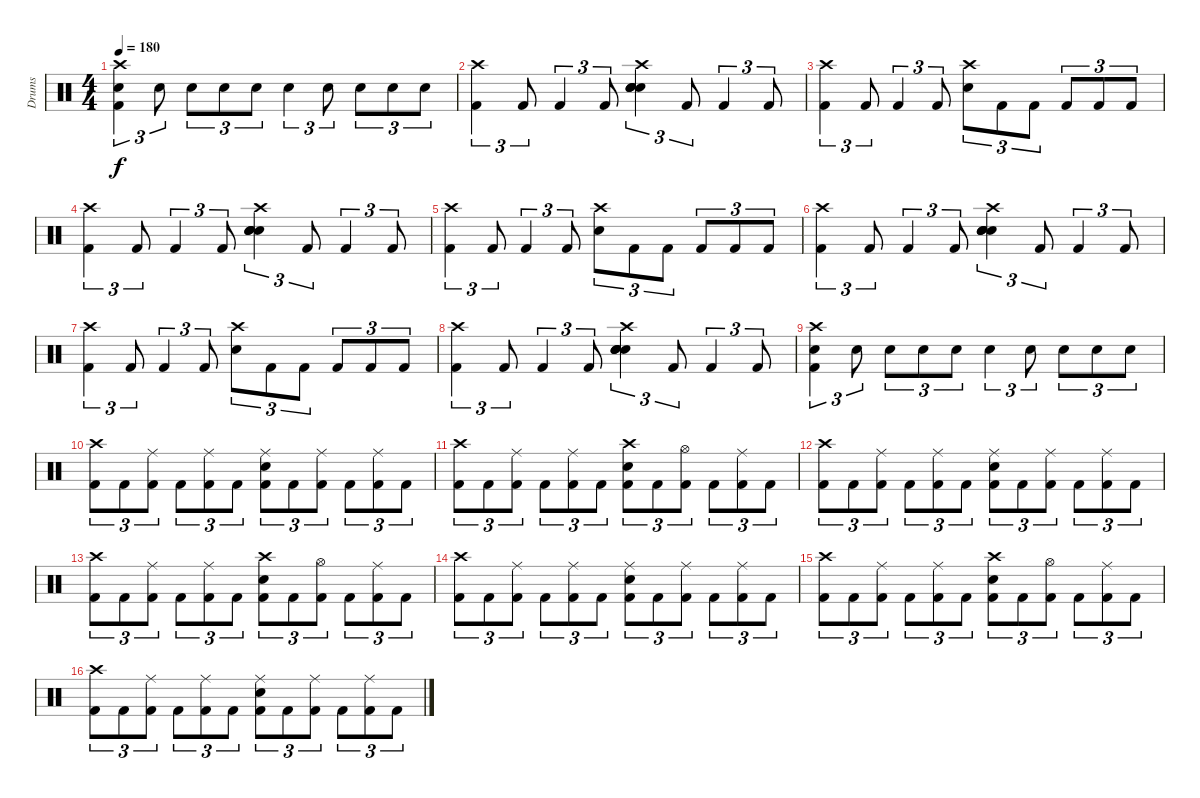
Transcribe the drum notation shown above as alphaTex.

\track ("Drums" "Drums") {instrument percussion}
\staff {score}
\articulation defaults
\ts (4 4)
\tempo 180
\clef neutral
\ks c
("Crash high (hit)" "Snare (hit) 2" "Kick (hit) 2").4{tu (3 2) dy f} "Snare (hit) 2".8{tu (3 2)} "Snare (hit) 2".8{tu (3 2)} "Snare (hit) 2".8{tu (3 2)} "Snare (hit) 2".8{tu (3 2)} "Snare (hit) 2".4{tu (3 2)} "Snare (hit) 2".8{tu (3 2)} "Snare (hit) 2".8{tu (3 2)} "Snare (hit) 2".8{tu (3 2)} "Snare (hit) 2".8{tu (3 2)} |
("Crash high (hit)" "Kick (hit) 2").4{tu (3 2)} "Kick (hit) 2".8{tu (3 2)} "Kick (hit) 2".4{tu (3 2)} "Kick (hit) 2".8{tu (3 2)} ("Crash high (hit)" "Electric Snare (hit)" "Snare (hit) 2" "Electric Snare (hit)" "Snare (hit) 2").4{tu (3 2)} "Kick (hit) 2".8{tu (3 2)} "Kick (hit) 2".4{tu (3 2)} "Kick (hit) 2".8{tu (3 2)} |
("Crash high (hit)" "Kick (hit) 2").4{tu (3 2)} "Kick (hit) 2".8{tu (3 2)} "Kick (hit) 2".4{tu (3 2)} "Kick (hit) 2".8{tu (3 2)} ("Crash high (hit)" "Snare (hit) 2").8{tu (3 2)} "Kick (hit) 2".8{tu (3 2)} "Kick (hit) 2".8{tu (3 2)} "Kick (hit) 2".8{tu (3 2)} "Kick (hit) 2".8{tu (3 2)} "Kick (hit) 2".8{tu (3 2)} |
("Crash high (hit)" "Kick (hit) 2").4{tu (3 2)} "Kick (hit) 2".8{tu (3 2)} "Kick (hit) 2".4{tu (3 2)} "Kick (hit) 2".8{tu (3 2)} ("Crash high (hit)" "Electric Snare (hit)" "Snare (hit) 2" "Electric Snare (hit)" "Snare (hit) 2").4{tu (3 2)} "Kick (hit) 2".8{tu (3 2)} "Kick (hit) 2".4{tu (3 2)} "Kick (hit) 2".8{tu (3 2)} |
("Crash high (hit)" "Kick (hit) 2").4{tu (3 2)} "Kick (hit) 2".8{tu (3 2)} "Kick (hit) 2".4{tu (3 2)} "Kick (hit) 2".8{tu (3 2)} ("Crash high (hit)" "Snare (hit) 2").8{tu (3 2)} "Kick (hit) 2".8{tu (3 2)} "Kick (hit) 2".8{tu (3 2)} "Kick (hit) 2".8{tu (3 2)} "Kick (hit) 2".8{tu (3 2)} "Kick (hit) 2".8{tu (3 2)} |
("Crash high (hit)" "Kick (hit) 2").4{tu (3 2)} "Kick (hit) 2".8{tu (3 2)} "Kick (hit) 2".4{tu (3 2)} "Kick (hit) 2".8{tu (3 2)} ("Crash high (hit)" "Electric Snare (hit)" "Snare (hit) 2" "Electric Snare (hit)" "Snare (hit) 2").4{tu (3 2)} "Kick (hit) 2".8{tu (3 2)} "Kick (hit) 2".4{tu (3 2)} "Kick (hit) 2".8{tu (3 2)} |
("Crash high (hit)" "Kick (hit) 2").4{tu (3 2)} "Kick (hit) 2".8{tu (3 2)} "Kick (hit) 2".4{tu (3 2)} "Kick (hit) 2".8{tu (3 2)} ("Crash high (hit)" "Snare (hit) 2").8{tu (3 2)} "Kick (hit) 2".8{tu (3 2)} "Kick (hit) 2".8{tu (3 2)} "Kick (hit) 2".8{tu (3 2)} "Kick (hit) 2".8{tu (3 2)} "Kick (hit) 2".8{tu (3 2)} |
("Crash high (hit)" "Kick (hit) 2").4{tu (3 2)} "Kick (hit) 2".8{tu (3 2)} "Kick (hit) 2".4{tu (3 2)} "Kick (hit) 2".8{tu (3 2)} ("Crash high (hit)" "Electric Snare (hit)" "Snare (hit) 2" "Electric Snare (hit)" "Snare (hit) 2").4{tu (3 2)} "Kick (hit) 2".8{tu (3 2)} "Kick (hit) 2".4{tu (3 2)} "Kick (hit) 2".8{tu (3 2)} |
("Crash high (hit)" "Snare (hit) 2" "Kick (hit) 2").4{tu (3 2)} "Snare (hit) 2".8{tu (3 2)} "Snare (hit) 2".8{tu (3 2)} "Snare (hit) 2".8{tu (3 2)} "Snare (hit) 2".8{tu (3 2)} "Snare (hit) 2".4{tu (3 2)} "Snare (hit) 2".8{tu (3 2)} "Snare (hit) 2".8{tu (3 2)} "Snare (hit) 2".8{tu (3 2)} "Snare (hit) 2".8{tu (3 2)} |
("Crash high (hit)" "Kick (hit) 2").8{tu (3 2)} "Kick (hit) 2".8{tu (3 2)} ("Ride (middle)" "Kick (hit) 2").8{tu (3 2)} "Kick (hit) 2".8{tu (3 2)} ("Ride (middle)" "Kick (hit) 2").8{tu (3 2)} "Kick (hit) 2".8{tu (3 2)} ("Ride (middle)" "Snare (hit) 2" "Kick (hit) 2").8{tu (3 2)} "Kick (hit) 2".8{tu (3 2)} ("Ride (middle)" "Kick (hit) 2").8{tu (3 2)} "Kick (hit) 2".8{tu (3 2)} ("Ride (middle)" "Kick (hit) 2").8{tu (3 2)} "Kick (hit) 2".8{tu (3 2)} |
("Crash high (hit)" "Kick (hit) 2").8{tu (3 2)} "Kick (hit) 2".8{tu (3 2)} ("Ride (middle)" "Kick (hit) 2").8{tu (3 2)} "Kick (hit) 2".8{tu (3 2)} ("Ride (middle)" "Kick (hit) 2").8{tu (3 2)} "Kick (hit) 2".8{tu (3 2)} ("Crash high (hit)" "Snare (hit) 2" "Kick (hit) 2").8{tu (3 2)} "Kick (hit) 2".8{tu (3 2)} ("Hi-Hat (open)" "Kick (hit) 2").8{tu (3 2)} "Kick (hit) 2".8{tu (3 2)} ("Ride (middle)" "Kick (hit) 2").8{tu (3 2)} "Kick (hit) 2".8{tu (3 2)} |
("Crash high (hit)" "Kick (hit) 2").8{tu (3 2)} "Kick (hit) 2".8{tu (3 2)} ("Ride (middle)" "Kick (hit) 2").8{tu (3 2)} "Kick (hit) 2".8{tu (3 2)} ("Ride (middle)" "Kick (hit) 2").8{tu (3 2)} "Kick (hit) 2".8{tu (3 2)} ("Ride (middle)" "Snare (hit) 2" "Kick (hit) 2").8{tu (3 2)} "Kick (hit) 2".8{tu (3 2)} ("Ride (middle)" "Kick (hit) 2").8{tu (3 2)} "Kick (hit) 2".8{tu (3 2)} ("Ride (middle)" "Kick (hit) 2").8{tu (3 2)} "Kick (hit) 2".8{tu (3 2)} |
("Crash high (hit)" "Kick (hit) 2").8{tu (3 2)} "Kick (hit) 2".8{tu (3 2)} ("Ride (middle)" "Kick (hit) 2").8{tu (3 2)} "Kick (hit) 2".8{tu (3 2)} ("Ride (middle)" "Kick (hit) 2").8{tu (3 2)} "Kick (hit) 2".8{tu (3 2)} ("Crash high (hit)" "Snare (hit) 2" "Kick (hit) 2").8{tu (3 2)} "Kick (hit) 2".8{tu (3 2)} ("Hi-Hat (open)" "Kick (hit) 2").8{tu (3 2)} "Kick (hit) 2".8{tu (3 2)} ("Ride (middle)" "Kick (hit) 2").8{tu (3 2)} "Kick (hit) 2".8{tu (3 2)} |
("Crash high (hit)" "Kick (hit) 2").8{tu (3 2)} "Kick (hit) 2".8{tu (3 2)} ("Ride (middle)" "Kick (hit) 2").8{tu (3 2)} "Kick (hit) 2".8{tu (3 2)} ("Ride (middle)" "Kick (hit) 2").8{tu (3 2)} "Kick (hit) 2".8{tu (3 2)} ("Ride (middle)" "Snare (hit) 2" "Kick (hit) 2").8{tu (3 2)} "Kick (hit) 2".8{tu (3 2)} ("Ride (middle)" "Kick (hit) 2").8{tu (3 2)} "Kick (hit) 2".8{tu (3 2)} ("Ride (middle)" "Kick (hit) 2").8{tu (3 2)} "Kick (hit) 2".8{tu (3 2)} |
("Crash high (hit)" "Kick (hit) 2").8{tu (3 2)} "Kick (hit) 2".8{tu (3 2)} ("Ride (middle)" "Kick (hit) 2").8{tu (3 2)} "Kick (hit) 2".8{tu (3 2)} ("Ride (middle)" "Kick (hit) 2").8{tu (3 2)} "Kick (hit) 2".8{tu (3 2)} ("Crash high (hit)" "Snare (hit) 2" "Kick (hit) 2").8{tu (3 2)} "Kick (hit) 2".8{tu (3 2)} ("Hi-Hat (open)" "Kick (hit) 2").8{tu (3 2)} "Kick (hit) 2".8{tu (3 2)} ("Ride (middle)" "Kick (hit) 2").8{tu (3 2)} "Kick (hit) 2".8{tu (3 2)} |
("Crash high (hit)" "Kick (hit) 2").8{tu (3 2)} "Kick (hit) 2".8{tu (3 2)} ("Ride (middle)" "Kick (hit) 2").8{tu (3 2)} "Kick (hit) 2".8{tu (3 2)} ("Ride (middle)" "Kick (hit) 2").8{tu (3 2)} "Kick (hit) 2".8{tu (3 2)} ("Ride (middle)" "Snare (hit) 2" "Kick (hit) 2").8{tu (3 2)} "Kick (hit) 2".8{tu (3 2)} ("Ride (middle)" "Kick (hit) 2").8{tu (3 2)} "Kick (hit) 2".8{tu (3 2)} ("Ride (middle)" "Kick (hit) 2").8{tu (3 2)} "Kick (hit) 2".8{tu (3 2)}
